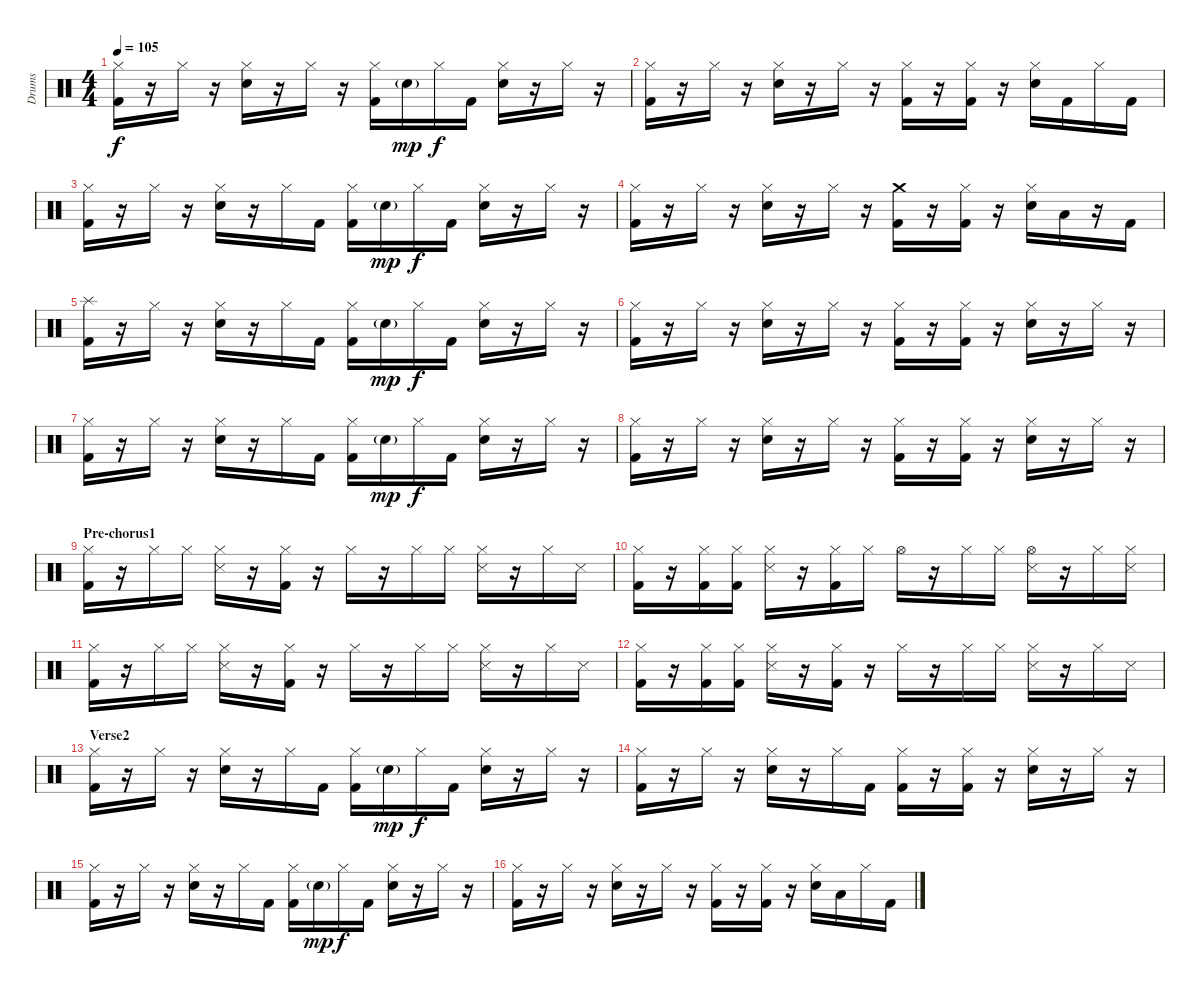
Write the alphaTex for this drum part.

\track ("Drums" "Drums") {instrument percussion}
\staff {score}
\articulation defaults
\ts (4 4)
\tempo 105
\clef neutral
\ks c
("Hi-Hat (closed)" "Kick (hit) 2").16{dy f} r.16 "Hi-Hat (closed)".16 r.16 ("Hi-Hat (closed)" "Snare (hit) 2").16 r.16 "Hi-Hat (closed)".16 r.16 ("Hi-Hat (closed)" "Kick (hit) 2").16 "Snare (hit) 2"{g}.16{dy mp} "Hi-Hat (closed)".16{dy f} "Kick (hit) 2".16 ("Hi-Hat (closed)" "Snare (hit) 2").16 r.16 "Hi-Hat (closed)".16 r.16 |
("Hi-Hat (closed)" "Kick (hit) 2").16 r.16 "Hi-Hat (closed)".16 r.16 ("Hi-Hat (closed)" "Snare (hit) 2").16 r.16 "Hi-Hat (closed)".16 r.16 ("Hi-Hat (closed)" "Kick (hit) 2").16 r.16 ("Hi-Hat (closed)" "Kick (hit) 2").16 r.16 ("Hi-Hat (closed)" "Snare (hit) 2").16 "Kick (hit) 2".16 "Hi-Hat (closed)".16 "Kick (hit) 2".16 |
("Hi-Hat (closed)" "Kick (hit) 2").16 r.16 "Hi-Hat (closed)".16 r.16 ("Hi-Hat (closed)" "Snare (hit) 2").16 r.16 "Hi-Hat (closed)".16 "Kick (hit) 2".16 ("Hi-Hat (closed)" "Kick (hit) 2").16 "Snare (hit) 2"{g}.16{dy mp} "Hi-Hat (closed)".16{dy f} "Kick (hit) 2".16 ("Hi-Hat (closed)" "Snare (hit) 2").16 r.16 "Hi-Hat (closed)".16 r.16 |
("Hi-Hat (closed)" "Kick (hit) 2").16 r.16 "Hi-Hat (closed)".16 r.16 ("Hi-Hat (closed)" "Snare (hit) 2").16 r.16 "Hi-Hat (closed)".16 r.16 ("Crash medium (hit)" "Kick (hit) 2").16 r.16 ("Hi-Hat (closed)" "Kick (hit) 2").16 r.16 ("Hi-Hat (closed)" "Snare (hit) 2").16 "Low Tom (hit)".16 r.16 "Kick (hit) 2".16 |
("Splash (hit)" "Kick (hit) 2").16 r.16 "Hi-Hat (closed)".16 r.16 ("Hi-Hat (closed)" "Snare (hit) 2").16 r.16 "Hi-Hat (closed)".16 "Kick (hit) 2".16 ("Hi-Hat (closed)" "Kick (hit) 2").16 "Snare (hit) 2"{g}.16{dy mp} "Hi-Hat (closed)".16{dy f} "Kick (hit) 2".16 ("Hi-Hat (closed)" "Snare (hit) 2").16 r.16 "Hi-Hat (closed)".16 r.16 |
("Hi-Hat (closed)" "Kick (hit) 2").16 r.16 "Hi-Hat (closed)".16 r.16 ("Hi-Hat (closed)" "Snare (hit) 2").16 r.16 "Hi-Hat (closed)".16 r.16 ("Hi-Hat (closed)" "Kick (hit) 2").16 r.16 ("Hi-Hat (closed)" "Kick (hit) 2").16 r.16 ("Hi-Hat (closed)" "Snare (hit) 2").16 r.16 "Hi-Hat (closed)".16 r.16 |
("Hi-Hat (closed)" "Kick (hit) 2").16 r.16 "Hi-Hat (closed)".16 r.16 ("Hi-Hat (closed)" "Snare (hit) 2").16 r.16 "Hi-Hat (closed)".16 "Kick (hit) 2".16 ("Hi-Hat (closed)" "Kick (hit) 2").16 "Snare (hit) 2"{g}.16{dy mp} "Hi-Hat (closed)".16{dy f} "Kick (hit) 2".16 ("Hi-Hat (closed)" "Snare (hit) 2").16 r.16 "Hi-Hat (closed)".16 r.16 |
("Hi-Hat (closed)" "Kick (hit) 2").16 r.16 "Hi-Hat (closed)".16 r.16 ("Hi-Hat (closed)" "Snare (hit) 2").16 r.16 "Hi-Hat (closed)".16 r.16 ("Hi-Hat (closed)" "Kick (hit) 2").16 r.16 ("Hi-Hat (closed)" "Kick (hit) 2").16 r.16 ("Hi-Hat (closed)" "Snare (hit) 2").16 r.16 "Hi-Hat (closed)".16 r.16 |
\section ("" "Pre-chorus1")
("Hi-Hat (closed)" "Kick (hit) 2").16 r.16 "Hi-Hat (closed)".16 "Hi-Hat (closed)".16 ("Hi-Hat (closed)" "Snare (side stick) 3").16 r.16 ("Hi-Hat (closed)" "Kick (hit) 2").16 r.16 "Hi-Hat (closed)".16 r.16 "Hi-Hat (closed)".16 "Hi-Hat (closed)".16 ("Hi-Hat (closed)" "Snare (side stick) 3").16 r.16 "Hi-Hat (closed)".16 "Snare (side stick) 3".16 |
("Hi-Hat (closed)" "Kick (hit) 2").16 r.16 ("Hi-Hat (closed)" "Kick (hit) 2").16 ("Hi-Hat (closed)" "Kick (hit) 2").16 ("Hi-Hat (closed)" "Snare (side stick) 3").16 r.16 ("Hi-Hat (closed)" "Kick (hit) 2").16 "Hi-Hat (closed)".16 "Hi-Hat (open)".16 r.16 "Hi-Hat (closed)".16 "Hi-Hat (closed)".16 ("Hi-Hat (open)" "Snare (side stick) 3").16 r.16 "Hi-Hat (closed)".16 ("Hi-Hat (closed)" "Snare (side stick) 3").16 |
("Hi-Hat (closed)" "Kick (hit) 2").16 r.16 "Hi-Hat (closed)".16 "Hi-Hat (closed)".16 ("Hi-Hat (closed)" "Snare (side stick) 3").16 r.16 ("Hi-Hat (closed)" "Kick (hit) 2").16 r.16 "Hi-Hat (closed)".16 r.16 "Hi-Hat (closed)".16 "Hi-Hat (closed)".16 ("Hi-Hat (closed)" "Snare (side stick) 3").16 r.16 "Hi-Hat (closed)".16 "Snare (side stick) 3".16 |
("Hi-Hat (closed)" "Kick (hit) 2").16 r.16 ("Hi-Hat (closed)" "Kick (hit) 2").16 ("Hi-Hat (closed)" "Kick (hit) 2").16 ("Hi-Hat (closed)" "Snare (side stick) 3").16 r.16 ("Hi-Hat (closed)" "Kick (hit) 2").16 r.16 "Hi-Hat (closed)".16 r.16 "Hi-Hat (closed)".16 "Hi-Hat (closed)".16 ("Hi-Hat (closed)" "Snare (side stick) 3").16 r.16 "Hi-Hat (closed)".16 "Snare (side stick) 3".16 |
\section ("" "Verse2")
("Hi-Hat (closed)" "Kick (hit) 2").16 r.16 "Hi-Hat (closed)".16 r.16 ("Hi-Hat (closed)" "Snare (hit) 2").16 r.16 "Hi-Hat (closed)".16 "Kick (hit) 2".16 ("Hi-Hat (closed)" "Kick (hit) 2").16 "Snare (hit) 2"{g}.16{dy mp} "Hi-Hat (closed)".16{dy f} "Kick (hit) 2".16 ("Hi-Hat (closed)" "Snare (hit) 2").16 r.16 "Hi-Hat (closed)".16 r.16 |
("Hi-Hat (closed)" "Kick (hit) 2").16 r.16 "Hi-Hat (closed)".16 r.16 ("Hi-Hat (closed)" "Snare (hit) 2").16 r.16 "Hi-Hat (closed)".16 "Kick (hit) 2".16 ("Hi-Hat (closed)" "Kick (hit) 2").16 r.16 ("Hi-Hat (closed)" "Kick (hit) 2").16 r.16 ("Hi-Hat (closed)" "Snare (hit) 2").16 r.16 "Hi-Hat (closed)".16 r.16 |
("Hi-Hat (closed)" "Kick (hit) 2").16 r.16 "Hi-Hat (closed)".16 r.16 ("Hi-Hat (closed)" "Snare (hit) 2").16 r.16 "Hi-Hat (closed)".16 "Kick (hit) 2".16 ("Hi-Hat (closed)" "Kick (hit) 2").16 "Snare (hit) 2"{g}.16{dy mp} "Hi-Hat (closed)".16{dy f} "Kick (hit) 2".16 ("Hi-Hat (closed)" "Snare (hit) 2").16 r.16 "Hi-Hat (closed)".16 r.16 |
("Hi-Hat (closed)" "Kick (hit) 2").16 r.16 "Hi-Hat (closed)".16 r.16 ("Hi-Hat (closed)" "Snare (hit) 2").16 r.16 "Hi-Hat (closed)".16 r.16 ("Hi-Hat (closed)" "Kick (hit) 2").16 r.16 ("Hi-Hat (closed)" "Kick (hit) 2").16 r.16 ("Hi-Hat (closed)" "Snare (hit) 2").16 "Low Tom (hit)".16 "Hi-Hat (closed)".16 "Kick (hit) 2".16
